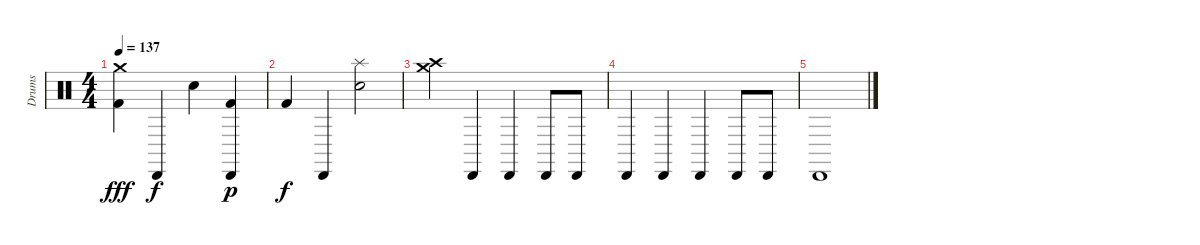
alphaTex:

\track ("Drums" "Drums") {instrument percussion}
\staff {score}
\articulation defaults
\ts (4 4)
\tempo 137
\clef neutral
\ks c
("Crash medium (hit)" "Kick (hit) 2").4{dy fff} "Cabasa (hit)".4{dy f} "Electric Snare (hit)".4 ("Cabasa (hit)" "Kick (hit) 2").4{dy p} |
"Kick (hit) 2".4{dy f} "Cabasa (hit)".4 ("Splash (hit)" "Electric Snare (hit)").2 |
("Crash high (hit)" "Crash medium (hit)").4{volume 5} "Cabasa (hit)".4 "Cabasa (hit)".4 "Cabasa (hit)".8 "Cabasa (hit)".8 |
"Cabasa (hit)".4{volume 2} "Cabasa (hit)".4 "Cabasa (hit)".4 "Cabasa (hit)".8 "Cabasa (hit)".8 |
"Cabasa (hit)".1
